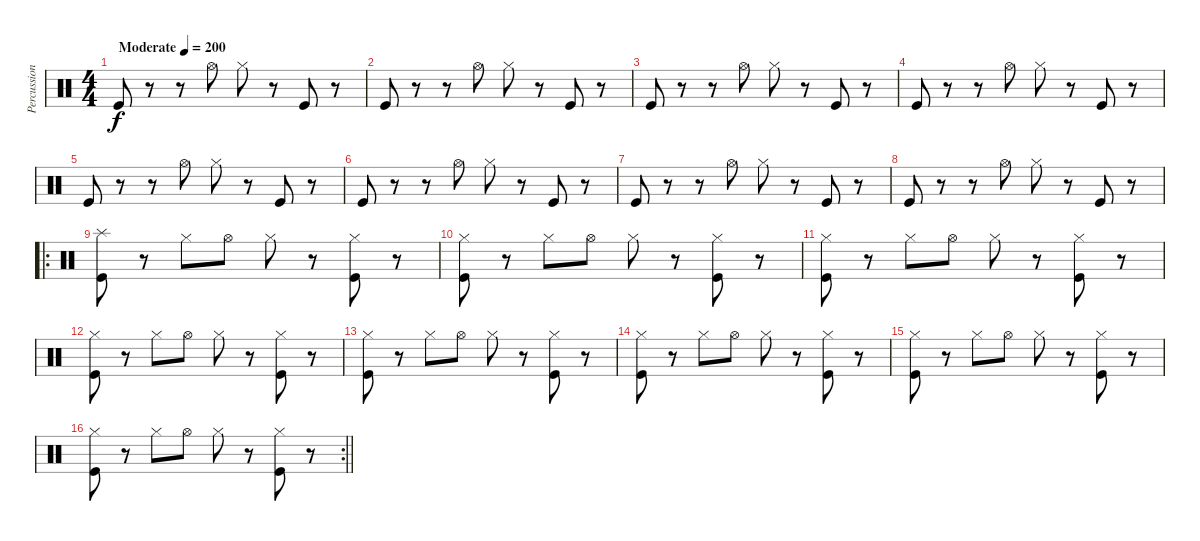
\track ("Percussion" "Percussion") {instrument percussion}
\staff {score}
\articulation defaults
\ts (4 4)
\tempo (200 "Moderate")
\clef neutral
\ks c "Kick (hit)".8{dy f}
r.8 r.8 "Hi-Hat (open)".8 "Hi-Hat (closed)".8 r.8 "Kick (hit)".8 r.8 |
"Kick (hit)".8 r.8 r.8 "Hi-Hat (open)".8 "Hi-Hat (closed)".8 r.8 "Kick (hit)".8 r.8 |
"Kick (hit)".8 r.8 r.8 "Hi-Hat (open)".8 "Hi-Hat (closed)".8 r.8 "Kick (hit)".8 r.8 |
"Kick (hit)".8 r.8 r.8 "Hi-Hat (open)".8 "Hi-Hat (closed)".8 r.8 "Kick (hit)".8 r.8 |
"Kick (hit)".8 r.8 r.8 "Hi-Hat (open)".8 "Hi-Hat (closed)".8 r.8 "Kick (hit)".8 r.8 |
"Kick (hit)".8 r.8 r.8 "Hi-Hat (open)".8 "Hi-Hat (closed)".8 r.8 "Kick (hit)".8 r.8 |
"Kick (hit)".8 r.8 r.8 "Hi-Hat (open)".8 "Hi-Hat (closed)".8 r.8 "Kick (hit)".8 r.8 |
"Kick (hit)".8 r.8 r.8 "Hi-Hat (open)".8 "Hi-Hat (closed)".8 r.8 "Kick (hit)".8 r.8 |
\ro
("Kick (hit)" "Splash (hit)").8 r.8 "Hi-Hat (closed)".8 "Hi-Hat (open)".8 "Hi-Hat (closed)".8 r.8 ("Hi-Hat (closed)" "Kick (hit)").8 r.8 |
("Kick (hit)" "Hi-Hat (closed)").8 r.8 "Hi-Hat (closed)".8 "Hi-Hat (open)".8 "Hi-Hat (closed)".8 r.8 ("Hi-Hat (closed)" "Kick (hit)").8 r.8 |
("Kick (hit)" "Hi-Hat (closed)").8 r.8 "Hi-Hat (closed)".8 "Hi-Hat (open)".8 "Hi-Hat (closed)".8 r.8 ("Hi-Hat (closed)" "Kick (hit)").8 r.8 |
("Kick (hit)" "Hi-Hat (closed)").8 r.8 "Hi-Hat (closed)".8 "Hi-Hat (open)".8 "Hi-Hat (closed)".8 r.8 ("Hi-Hat (closed)" "Kick (hit)").8 r.8 |
("Kick (hit)" "Hi-Hat (closed)").8 r.8 "Hi-Hat (closed)".8 "Hi-Hat (open)".8 "Hi-Hat (closed)".8 r.8 ("Hi-Hat (closed)" "Kick (hit)").8 r.8 |
("Kick (hit)" "Hi-Hat (closed)").8 r.8 "Hi-Hat (closed)".8 "Hi-Hat (open)".8 "Hi-Hat (closed)".8 r.8 ("Hi-Hat (closed)" "Kick (hit)").8 r.8 |
("Kick (hit)" "Hi-Hat (closed)").8 r.8 "Hi-Hat (closed)".8 "Hi-Hat (open)".8 "Hi-Hat (closed)".8 r.8 ("Hi-Hat (closed)" "Kick (hit)").8 r.8 |
\rc 2
\barLineRight lightlight
("Kick (hit)" "Hi-Hat (closed)").8 r.8 "Hi-Hat (closed)".8 "Hi-Hat (open)".8 "Hi-Hat (closed)".8 r.8 ("Hi-Hat (closed)" "Kick (hit)").8 r.8
